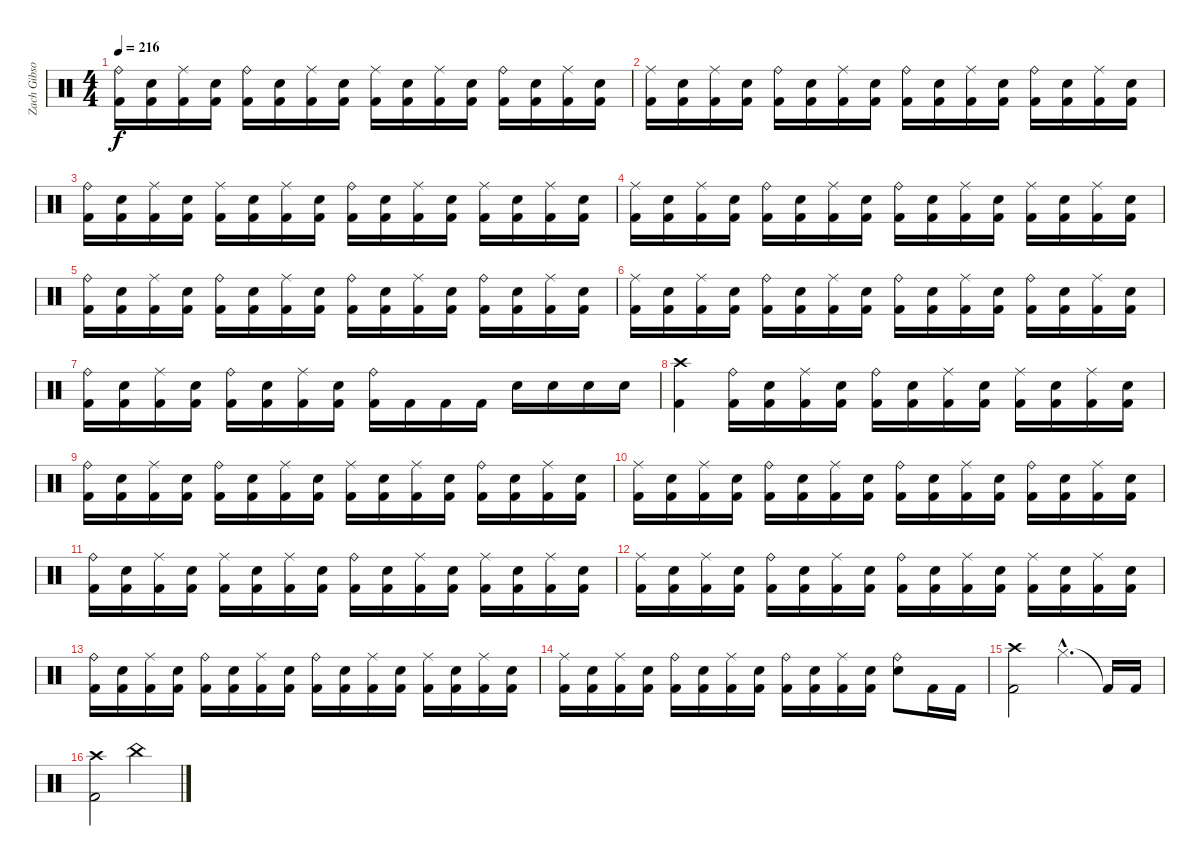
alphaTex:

\track ("Zach Gibson (Ex-Drums)" "Zach Gibso") {instrument percussion}
\staff {score}
\articulation defaults
\ts (4 4)
\tempo 216
\clef neutral
\ks c
("Ride (bell)" "Kick (hit) 2").16{dy f} ("Snare (hit) 2" "Kick (hit) 2").16 ("Ride (middle)" "Kick (hit) 2").16 ("Snare (hit) 2" "Kick (hit) 2").16 ("Ride (bell)" "Kick (hit) 2").16 ("Snare (hit) 2" "Kick (hit) 2").16 ("Ride (middle)" "Kick (hit) 2").16 ("Snare (hit) 2" "Kick (hit) 2").16 ("Ride (middle)" "Kick (hit) 2").16 ("Snare (hit) 2" "Kick (hit) 2").16 ("Ride (middle)" "Kick (hit) 2").16 ("Snare (hit) 2" "Kick (hit) 2").16 ("Ride (bell)" "Kick (hit) 2").16 ("Snare (hit) 2" "Kick (hit) 2").16 ("Ride (middle)" "Kick (hit) 2").16 ("Snare (hit) 2" "Kick (hit) 2").16 |
("Ride (middle)" "Kick (hit) 2").16 ("Snare (hit) 2" "Kick (hit) 2").16 ("Ride (middle)" "Kick (hit) 2").16 ("Snare (hit) 2" "Kick (hit) 2").16 ("Ride (bell)" "Kick (hit) 2").16 ("Snare (hit) 2" "Kick (hit) 2").16 ("Ride (middle)" "Kick (hit) 2").16 ("Snare (hit) 2" "Kick (hit) 2").16 ("Ride (bell)" "Kick (hit) 2").16 ("Snare (hit) 2" "Kick (hit) 2").16 ("Ride (middle)" "Kick (hit) 2").16 ("Snare (hit) 2" "Kick (hit) 2").16 ("Ride (bell)" "Kick (hit) 2").16 ("Snare (hit) 2" "Kick (hit) 2").16 ("Ride (middle)" "Kick (hit) 2").16 ("Snare (hit) 2" "Kick (hit) 2").16 |
("Ride (bell)" "Kick (hit) 2").16 ("Snare (hit) 2" "Kick (hit) 2").16 ("Ride (middle)" "Kick (hit) 2").16 ("Snare (hit) 2" "Kick (hit) 2").16 ("Ride (middle)" "Kick (hit) 2").16 ("Snare (hit) 2" "Kick (hit) 2").16 ("Ride (middle)" "Kick (hit) 2").16 ("Snare (hit) 2" "Kick (hit) 2").16 ("Ride (bell)" "Kick (hit) 2").16 ("Snare (hit) 2" "Kick (hit) 2").16 ("Ride (middle)" "Kick (hit) 2").16 ("Snare (hit) 2" "Kick (hit) 2").16 ("Ride (middle)" "Kick (hit) 2").16 ("Snare (hit) 2" "Kick (hit) 2").16 ("Ride (middle)" "Kick (hit) 2").16 ("Snare (hit) 2" "Kick (hit) 2").16 |
("Ride (middle)" "Kick (hit) 2").16 ("Snare (hit) 2" "Kick (hit) 2").16 ("Ride (middle)" "Kick (hit) 2").16 ("Snare (hit) 2" "Kick (hit) 2").16 ("Ride (bell)" "Kick (hit) 2").16 ("Snare (hit) 2" "Kick (hit) 2").16 ("Ride (middle)" "Kick (hit) 2").16 ("Snare (hit) 2" "Kick (hit) 2").16 ("Ride (bell)" "Kick (hit) 2").16 ("Snare (hit) 2" "Kick (hit) 2").16 ("Ride (middle)" "Kick (hit) 2").16 ("Snare (hit) 2" "Kick (hit) 2").16 ("Ride (middle)" "Kick (hit) 2").16 ("Snare (hit) 2" "Kick (hit) 2").16 ("Ride (middle)" "Kick (hit) 2").16 ("Snare (hit) 2" "Kick (hit) 2").16 |
("Ride (bell)" "Kick (hit) 2").16 ("Snare (hit) 2" "Kick (hit) 2").16 ("Ride (middle)" "Kick (hit) 2").16 ("Snare (hit) 2" "Kick (hit) 2").16 ("Ride (bell)" "Kick (hit) 2").16 ("Snare (hit) 2" "Kick (hit) 2").16 ("Ride (middle)" "Kick (hit) 2").16 ("Snare (hit) 2" "Kick (hit) 2").16 ("Ride (bell)" "Kick (hit) 2").16 ("Snare (hit) 2" "Kick (hit) 2").16 ("Ride (middle)" "Kick (hit) 2").16 ("Snare (hit) 2" "Kick (hit) 2").16 ("Ride (bell)" "Kick (hit) 2").16 ("Snare (hit) 2" "Kick (hit) 2").16 ("Ride (middle)" "Kick (hit) 2").16 ("Snare (hit) 2" "Kick (hit) 2").16 |
("Ride (middle)" "Kick (hit) 2").16 ("Snare (hit) 2" "Kick (hit) 2").16 ("Ride (middle)" "Kick (hit) 2").16 ("Snare (hit) 2" "Kick (hit) 2").16 ("Ride (bell)" "Kick (hit) 2").16 ("Snare (hit) 2" "Kick (hit) 2").16 ("Ride (middle)" "Kick (hit) 2").16 ("Snare (hit) 2" "Kick (hit) 2").16 ("Ride (bell)" "Kick (hit) 2").16 ("Snare (hit) 2" "Kick (hit) 2").16 ("Ride (middle)" "Kick (hit) 2").16 ("Snare (hit) 2" "Kick (hit) 2").16 ("Ride (bell)" "Kick (hit) 2").16 ("Snare (hit) 2" "Kick (hit) 2").16 ("Ride (middle)" "Kick (hit) 2").16 ("Snare (hit) 2" "Kick (hit) 2").16 |
("Ride (bell)" "Kick (hit) 2").16 ("Snare (hit) 2" "Kick (hit) 2").16 ("Ride (middle)" "Kick (hit) 2").16 ("Snare (hit) 2" "Kick (hit) 2").16 ("Ride (bell)" "Kick (hit) 2").16 ("Snare (hit) 2" "Kick (hit) 2").16 ("Ride (middle)" "Kick (hit) 2").16 ("Snare (hit) 2" "Kick (hit) 2").16 ("Ride (bell)" "Kick (hit) 2").16 "Kick (hit) 2".16 "Kick (hit) 2".16 "Kick (hit) 2".16 "Snare (hit) 2".16 "Snare (hit) 2".16 "Snare (hit) 2".16 "Snare (hit) 2".16 |
("Crash high (hit)" "Kick (hit) 2").4 ("Ride (bell)" "Kick (hit) 2").16 ("Snare (hit) 2" "Kick (hit) 2").16 ("Ride (middle)" "Kick (hit) 2").16 ("Snare (hit) 2" "Kick (hit) 2").16 ("Ride (bell)" "Kick (hit) 2").16 ("Snare (hit) 2" "Kick (hit) 2").16 ("Ride (middle)" "Kick (hit) 2").16 ("Snare (hit) 2" "Kick (hit) 2").16 ("Ride (middle)" "Kick (hit) 2").16 ("Snare (hit) 2" "Kick (hit) 2").16 ("Ride (middle)" "Kick (hit) 2").16 ("Snare (hit) 2" "Kick (hit) 2").16 |
("Ride (bell)" "Kick (hit) 2").16 ("Snare (hit) 2" "Kick (hit) 2").16 ("Ride (middle)" "Kick (hit) 2").16 ("Snare (hit) 2" "Kick (hit) 2").16 ("Ride (bell)" "Kick (hit) 2").16 ("Snare (hit) 2" "Kick (hit) 2").16 ("Ride (middle)" "Kick (hit) 2").16 ("Snare (hit) 2" "Kick (hit) 2").16 ("Ride (middle)" "Kick (hit) 2").16 ("Snare (hit) 2" "Kick (hit) 2").16 ("Ride (middle)" "Kick (hit) 2").16 ("Snare (hit) 2" "Kick (hit) 2").16 ("Ride (bell)" "Kick (hit) 2").16 ("Snare (hit) 2" "Kick (hit) 2").16 ("Ride (middle)" "Kick (hit) 2").16 ("Snare (hit) 2" "Kick (hit) 2").16 |
("Ride (middle)" "Kick (hit) 2").16 ("Snare (hit) 2" "Kick (hit) 2").16 ("Ride (middle)" "Kick (hit) 2").16 ("Snare (hit) 2" "Kick (hit) 2").16 ("Ride (bell)" "Kick (hit) 2").16 ("Snare (hit) 2" "Kick (hit) 2").16 ("Ride (middle)" "Kick (hit) 2").16 ("Snare (hit) 2" "Kick (hit) 2").16 ("Ride (bell)" "Kick (hit) 2").16 ("Snare (hit) 2" "Kick (hit) 2").16 ("Ride (middle)" "Kick (hit) 2").16 ("Snare (hit) 2" "Kick (hit) 2").16 ("Ride (bell)" "Kick (hit) 2").16 ("Snare (hit) 2" "Kick (hit) 2").16 ("Ride (middle)" "Kick (hit) 2").16 ("Snare (hit) 2" "Kick (hit) 2").16 |
("Ride (bell)" "Kick (hit) 2").16 ("Snare (hit) 2" "Kick (hit) 2").16 ("Ride (middle)" "Kick (hit) 2").16 ("Snare (hit) 2" "Kick (hit) 2").16 ("Ride (middle)" "Kick (hit) 2").16 ("Snare (hit) 2" "Kick (hit) 2").16 ("Ride (middle)" "Kick (hit) 2").16 ("Snare (hit) 2" "Kick (hit) 2").16 ("Ride (bell)" "Kick (hit) 2").16 ("Snare (hit) 2" "Kick (hit) 2").16 ("Ride (middle)" "Kick (hit) 2").16 ("Snare (hit) 2" "Kick (hit) 2").16 ("Ride (middle)" "Kick (hit) 2").16 ("Snare (hit) 2" "Kick (hit) 2").16 ("Ride (middle)" "Kick (hit) 2").16 ("Snare (hit) 2" "Kick (hit) 2").16 |
("Ride (middle)" "Kick (hit) 2").16 ("Snare (hit) 2" "Kick (hit) 2").16 ("Ride (middle)" "Kick (hit) 2").16 ("Snare (hit) 2" "Kick (hit) 2").16 ("Ride (bell)" "Kick (hit) 2").16 ("Snare (hit) 2" "Kick (hit) 2").16 ("Ride (middle)" "Kick (hit) 2").16 ("Snare (hit) 2" "Kick (hit) 2").16 ("Ride (bell)" "Kick (hit) 2").16 ("Snare (hit) 2" "Kick (hit) 2").16 ("Ride (middle)" "Kick (hit) 2").16 ("Snare (hit) 2" "Kick (hit) 2").16 ("Ride (middle)" "Kick (hit) 2").16 ("Snare (hit) 2" "Kick (hit) 2").16 ("Ride (middle)" "Kick (hit) 2").16 ("Snare (hit) 2" "Kick (hit) 2").16 |
("Ride (bell)" "Kick (hit) 2").16 ("Snare (hit) 2" "Kick (hit) 2").16 ("Ride (middle)" "Kick (hit) 2").16 ("Snare (hit) 2" "Kick (hit) 2").16 ("Ride (bell)" "Kick (hit) 2").16 ("Snare (hit) 2" "Kick (hit) 2").16 ("Ride (middle)" "Kick (hit) 2").16 ("Snare (hit) 2" "Kick (hit) 2").16 ("Ride (bell)" "Kick (hit) 2").16 ("Snare (hit) 2" "Kick (hit) 2").16 ("Ride (middle)" "Kick (hit) 2").16 ("Snare (hit) 2" "Kick (hit) 2").16 ("Ride (middle)" "Kick (hit) 2").16 ("Snare (hit) 2" "Kick (hit) 2").16 ("Ride (middle)" "Kick (hit) 2").16 ("Snare (hit) 2" "Kick (hit) 2").16 |
("Ride (middle)" "Kick (hit) 2").16 ("Snare (hit) 2" "Kick (hit) 2").16 ("Ride (middle)" "Kick (hit) 2").16 ("Snare (hit) 2" "Kick (hit) 2").16 ("Ride (bell)" "Kick (hit) 2").16 ("Snare (hit) 2" "Kick (hit) 2").16 ("Ride (middle)" "Kick (hit) 2").16 ("Snare (hit) 2" "Kick (hit) 2").16 ("Ride (bell)" "Kick (hit) 2").16 ("Snare (hit) 2" "Kick (hit) 2").16 ("Ride (middle)" "Kick (hit) 2").16 ("Snare (hit) 2" "Kick (hit) 2").16 ("Ride (bell)" "Snare (hit) 2").8 "Kick (hit) 2".16 "Kick (hit) 2".16 |
("Crash high (hit)" "Kick (hit) 2").2 "Hi-Hat (closed)"{hac}.4{d} "Kick (hit) 2"{t}.16 "Kick (hit) 2".16 |
("Crash high (hit)" "Kick (hit) 2").2 "China (hit)".2
